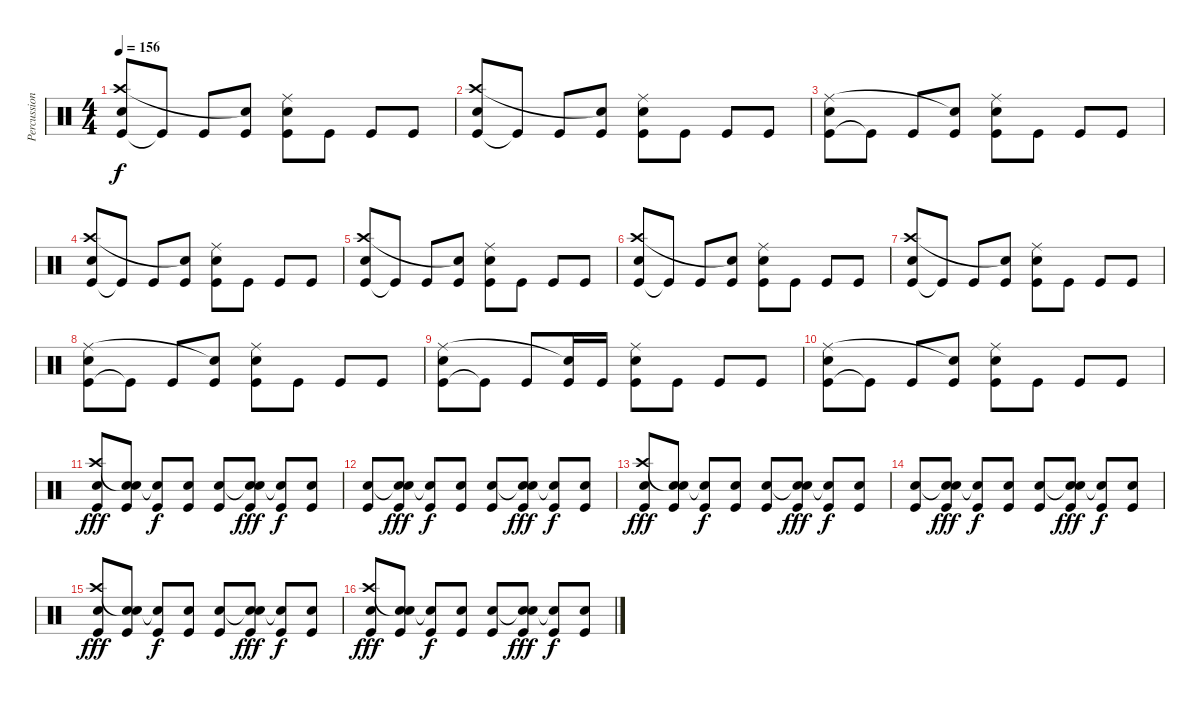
\track ("Percussion" "Percussion") {instrument percussion}
\staff {score}
\articulation defaults
\ts (4 4)
\tempo 156
\clef neutral
\ks c
("Kick (hit)" "Crash high (hit)" "Electric Snare (hit)").8{dy f} "Kick (hit)"{t}.8 "Kick (hit)".8 ("Kick (hit)" "Snare (hit)"{t}).8 ("Kick (hit)" "Ride (middle)" "Electric Snare (hit)").8 "Kick (hit)".8 "Kick (hit)".8 "Kick (hit)".8 |
("Kick (hit)" "Crash high (hit)" "Electric Snare (hit)").8 "Kick (hit)"{t}.8 "Kick (hit)".8 ("Kick (hit)" "Snare (hit)"{t}).8 ("Kick (hit)" "Ride (middle)" "Electric Snare (hit)").8 "Kick (hit)".8 "Kick (hit)".8 "Kick (hit)".8 |
("Kick (hit)" "Ride (middle)" "Electric Snare (hit)").8 "Kick (hit)"{t}.8 "Kick (hit)".8 ("Kick (hit)" "Snare (hit)"{t}).8 ("Kick (hit)" "Ride (middle)" "Electric Snare (hit)").8 "Kick (hit)".8 "Kick (hit)".8 "Kick (hit)".8 |
("Kick (hit)" "Crash high (hit)" "Electric Snare (hit)").8 "Kick (hit)"{t}.8 "Kick (hit)".8 ("Kick (hit)" "Snare (hit)"{t}).8 ("Kick (hit)" "Ride (middle)" "Electric Snare (hit)").8 "Kick (hit)".8 "Kick (hit)".8 "Kick (hit)".8 |
("Kick (hit)" "Crash high (hit)" "Electric Snare (hit)").8 "Kick (hit)"{t}.8 "Kick (hit)".8 ("Kick (hit)" "Snare (hit)"{t}).8 ("Kick (hit)" "Ride (middle)" "Electric Snare (hit)").8 "Kick (hit)".8 "Kick (hit)".8 "Kick (hit)".8 |
("Kick (hit)" "Crash high (hit)" "Electric Snare (hit)").8 "Kick (hit)"{t}.8 "Kick (hit)".8 ("Kick (hit)" "Snare (hit)"{t}).8 ("Kick (hit)" "Ride (middle)" "Electric Snare (hit)").8 "Kick (hit)".8 "Kick (hit)".8 "Kick (hit)".8 |
("Kick (hit)" "Crash high (hit)" "Electric Snare (hit)").8 "Kick (hit)"{t}.8 "Kick (hit)".8 ("Kick (hit)" "Snare (hit)"{t}).8 ("Kick (hit)" "Ride (middle)" "Electric Snare (hit)").8 "Kick (hit)".8 "Kick (hit)".8 "Kick (hit)".8 |
("Kick (hit)" "Ride (middle)" "Electric Snare (hit)").8 "Kick (hit)"{t}.8 "Kick (hit)".8 ("Kick (hit)" "Snare (hit)"{t}).8 ("Kick (hit)" "Ride (middle)" "Electric Snare (hit)").8 "Kick (hit)".8 "Kick (hit)".8 "Kick (hit)".8 |
("Kick (hit)" "Ride (middle)" "Electric Snare (hit)").8 "Kick (hit)"{t}.8 "Kick (hit)".8 ("Kick (hit)" "Snare (hit)"{t}).16 "Kick (hit)".16 ("Kick (hit)" "Ride (middle)" "Electric Snare (hit)").8 "Kick (hit)".8 "Kick (hit)".8 "Kick (hit)".8 |
("Kick (hit)" "Ride (middle)" "Electric Snare (hit)").8 "Kick (hit)"{t}.8 "Kick (hit)".8 ("Kick (hit)" "Snare (hit)"{t}).8 ("Kick (hit)" "Ride (middle)" "Electric Snare (hit)").8 "Kick (hit)".8 "Kick (hit)".8 "Kick (hit)".8 |
("Kick (hit)" "Crash high (hit)" "Electric Snare (hit)").8{dy fff} ("Kick (hit)" "Snare (hit)"{t} "Electric Snare (hit)").8 ("Kick (hit)" "Electric Snare (hit)"{t}).8{dy f} ("Kick (hit)" "Electric Snare (hit)").8 ("Kick (hit)" "Electric Snare (hit)").8 ("Kick (hit)" "Snare (hit)"{t} "Electric Snare (hit)").8{dy fff} ("Kick (hit)" "Electric Snare (hit)"{t}).8{dy f} ("Kick (hit)" "Electric Snare (hit)").8 |
("Kick (hit)" "Electric Snare (hit)").8 ("Kick (hit)" "Snare (hit)"{t} "Electric Snare (hit)").8{dy fff} ("Kick (hit)" "Electric Snare (hit)"{t}).8{dy f} ("Kick (hit)" "Electric Snare (hit)").8 ("Kick (hit)" "Electric Snare (hit)").8 ("Kick (hit)" "Snare (hit)"{t} "Electric Snare (hit)").8{dy fff} ("Kick (hit)" "Electric Snare (hit)"{t}).8{dy f} ("Kick (hit)" "Electric Snare (hit)").8 |
("Kick (hit)" "Crash high (hit)" "Electric Snare (hit)").8{dy fff} ("Kick (hit)" "Snare (hit)"{t} "Electric Snare (hit)").8 ("Kick (hit)" "Electric Snare (hit)"{t}).8{dy f} ("Kick (hit)" "Electric Snare (hit)").8 ("Kick (hit)" "Electric Snare (hit)").8 ("Kick (hit)" "Snare (hit)"{t} "Electric Snare (hit)").8{dy fff} ("Kick (hit)" "Electric Snare (hit)"{t}).8{dy f} ("Kick (hit)" "Electric Snare (hit)").8 |
("Kick (hit)" "Electric Snare (hit)").8 ("Kick (hit)" "Snare (hit)"{t} "Electric Snare (hit)").8{dy fff} ("Kick (hit)" "Electric Snare (hit)"{t}).8{dy f} ("Kick (hit)" "Electric Snare (hit)").8 ("Kick (hit)" "Electric Snare (hit)").8 ("Kick (hit)" "Snare (hit)"{t} "Electric Snare (hit)").8{dy fff} ("Kick (hit)" "Electric Snare (hit)"{t}).8{dy f} ("Kick (hit)" "Electric Snare (hit)").8 |
("Kick (hit)" "Crash high (hit)" "Electric Snare (hit)").8{dy fff} ("Kick (hit)" "Snare (hit)"{t} "Electric Snare (hit)").8 ("Kick (hit)" "Electric Snare (hit)"{t}).8{dy f} ("Kick (hit)" "Electric Snare (hit)").8 ("Kick (hit)" "Electric Snare (hit)").8 ("Kick (hit)" "Snare (hit)"{t} "Electric Snare (hit)").8{dy fff} ("Kick (hit)" "Electric Snare (hit)"{t}).8{dy f} ("Kick (hit)" "Electric Snare (hit)").8 |
("Kick (hit)" "Crash high (hit)" "Electric Snare (hit)").8{dy fff} ("Kick (hit)" "Snare (hit)"{t} "Electric Snare (hit)").8 ("Kick (hit)" "Electric Snare (hit)"{t}).8{dy f} ("Kick (hit)" "Electric Snare (hit)").8 ("Kick (hit)" "Electric Snare (hit)").8 ("Kick (hit)" "Snare (hit)"{t} "Electric Snare (hit)").8{dy fff} ("Kick (hit)" "Electric Snare (hit)"{t}).8{dy f} ("Kick (hit)" "Electric Snare (hit)").8
